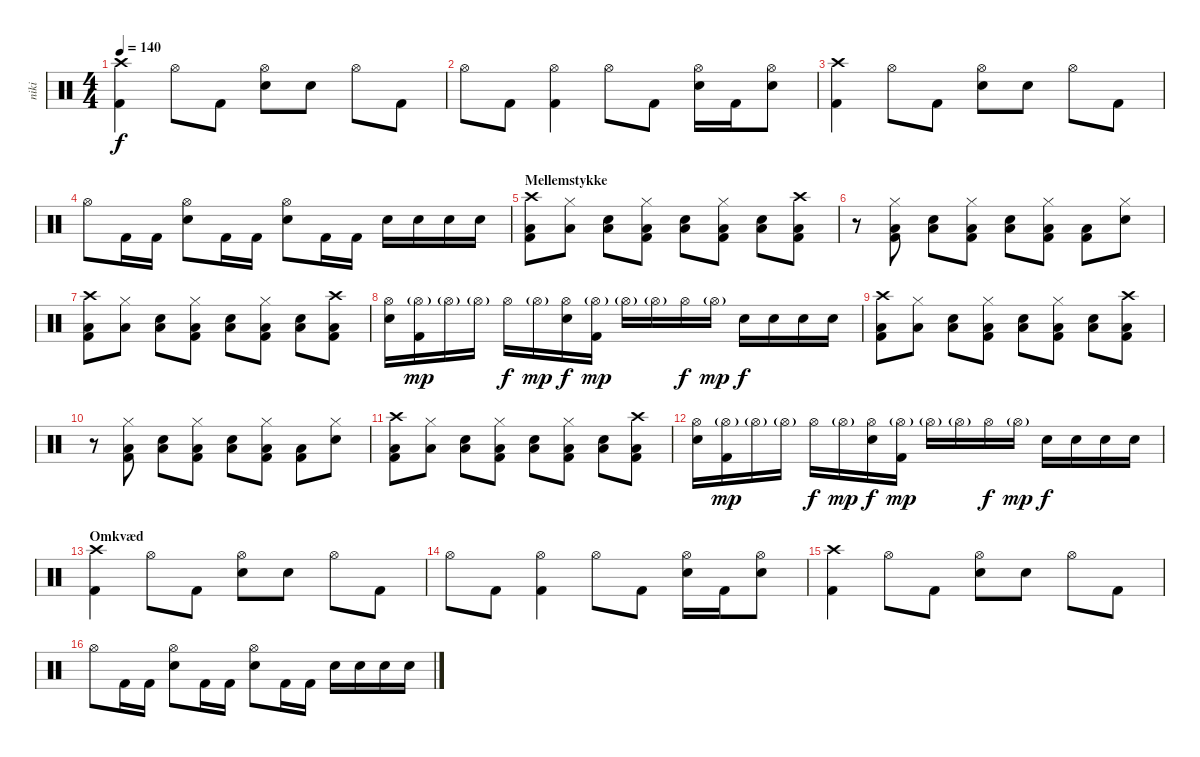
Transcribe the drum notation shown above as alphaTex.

\track ("niki" "niki") {instrument percussion}
\staff {score}
\articulation defaults
\ts (4 4)
\tempo 140
\clef neutral
\ks c
("Crash high (hit)" "Kick (hit) 2").4{dy f} "Hi-Hat (open)".8 "Kick (hit) 2".8 ("Hi-Hat (open)" "Snare (hit) 2").8 "Snare (hit) 2".8 "Hi-Hat (open)".8 "Kick (hit) 2".8 |
"Hi-Hat (open)".8 "Kick (hit) 2".8 ("Hi-Hat (open)" "Kick (hit) 2").4 "Hi-Hat (open)".8 "Kick (hit) 2".8 ("Hi-Hat (open)" "Snare (hit) 2").16 "Kick (hit) 2".16 ("Hi-Hat (open)" "Snare (hit) 2").8 |
("Crash high (hit)" "Kick (hit) 2").4 "Hi-Hat (open)".8 "Kick (hit) 2".8 ("Hi-Hat (open)" "Snare (hit) 2").8 "Snare (hit) 2".8 "Hi-Hat (open)".8 "Kick (hit) 2".8 |
"Hi-Hat (open)".8 "Kick (hit) 2".16 "Kick (hit) 2".16 ("Hi-Hat (open)" "Snare (hit) 2").8 "Kick (hit) 2".16 "Kick (hit) 2".16 ("Hi-Hat (open)" "Snare (hit) 2").8 "Kick (hit) 2".16 "Kick (hit) 2".16 "Snare (hit) 2".16 "Snare (hit) 2".16 "Snare (hit) 2".16 "Snare (hit) 2".16 |
\section ("" "Mellemstykke")
("Crash high (hit)" "Low Floor Tom (hit)" "Kick (hit) 2").8 ("Hi-Hat (closed)" "Low Floor Tom (hit)").8 ("Low Floor Tom (hit)" "Snare (hit) 2").8 ("Hi-Hat (closed)" "Low Floor Tom (hit)" "Kick (hit) 2").8 ("Low Floor Tom (hit)" "Snare (hit) 2").8 ("Hi-Hat (closed)" "Low Floor Tom (hit)" "Kick (hit) 2").8 ("Low Floor Tom (hit)" "Snare (hit) 2").8 ("Crash high (hit)" "Low Floor Tom (hit)" "Kick (hit) 2").8 |
r.8 ("Hi-Hat (closed)" "Low Floor Tom (hit)" "Kick (hit) 2").8 ("Low Floor Tom (hit)" "Snare (hit) 2").8 ("Hi-Hat (closed)" "Low Floor Tom (hit)" "Kick (hit) 2").8 ("Low Floor Tom (hit)" "Snare (hit) 2").8 ("Hi-Hat (closed)" "Low Floor Tom (hit)" "Kick (hit) 2").8 ("Low Floor Tom (hit)" "Kick (hit) 2").8 ("Hi-Hat (closed)" "Snare (hit) 2").8 |
("Crash high (hit)" "Low Floor Tom (hit)" "Kick (hit) 2").8 ("Hi-Hat (closed)" "Low Floor Tom (hit)").8 ("Low Floor Tom (hit)" "Snare (hit) 2").8 ("Hi-Hat (closed)" "Low Floor Tom (hit)" "Kick (hit) 2").8 ("Low Floor Tom (hit)" "Snare (hit) 2").8 ("Hi-Hat (closed)" "Low Floor Tom (hit)" "Kick (hit) 2").8 ("Low Floor Tom (hit)" "Snare (hit) 2").8 ("Crash high (hit)" "Low Floor Tom (hit)" "Kick (hit) 2").8 |
("Hi-Hat (open)" "Snare (hit) 2").16 ("Hi-Hat (open)"{g} "Kick (hit) 2").16{dy mp} "Hi-Hat (open)"{g}.16 "Hi-Hat (open)"{g}.16 "Hi-Hat (open)".16{dy f} "Hi-Hat (open)"{g}.16{dy mp} ("Hi-Hat (open)" "Snare (hit) 2").16{dy f} ("Hi-Hat (open)"{g} "Kick (hit) 2").16{dy mp} "Hi-Hat (open)"{g}.16 "Hi-Hat (open)"{g}.16 "Hi-Hat (open)".16{dy f} "Hi-Hat (open)"{g}.16{dy mp} "Snare (hit) 2".16{dy f} "Snare (hit) 2".16 "Snare (hit) 2".16 "Snare (hit) 2".16 |
("Crash high (hit)" "Low Floor Tom (hit)" "Kick (hit) 2").8 ("Hi-Hat (closed)" "Low Floor Tom (hit)").8 ("Low Floor Tom (hit)" "Snare (hit) 2").8 ("Hi-Hat (closed)" "Low Floor Tom (hit)" "Kick (hit) 2").8 ("Low Floor Tom (hit)" "Snare (hit) 2").8 ("Hi-Hat (closed)" "Low Floor Tom (hit)" "Kick (hit) 2").8 ("Low Floor Tom (hit)" "Snare (hit) 2").8 ("Crash high (hit)" "Low Floor Tom (hit)" "Kick (hit) 2").8 |
r.8 ("Hi-Hat (closed)" "Low Floor Tom (hit)" "Kick (hit) 2").8 ("Low Floor Tom (hit)" "Snare (hit) 2").8 ("Hi-Hat (closed)" "Low Floor Tom (hit)" "Kick (hit) 2").8 ("Low Floor Tom (hit)" "Snare (hit) 2").8 ("Hi-Hat (closed)" "Low Floor Tom (hit)" "Kick (hit) 2").8 ("Low Floor Tom (hit)" "Kick (hit) 2").8 ("Hi-Hat (closed)" "Snare (hit) 2").8 |
("Crash high (hit)" "Low Floor Tom (hit)" "Kick (hit) 2").8 ("Hi-Hat (closed)" "Low Floor Tom (hit)").8 ("Low Floor Tom (hit)" "Snare (hit) 2").8 ("Hi-Hat (closed)" "Low Floor Tom (hit)" "Kick (hit) 2").8 ("Low Floor Tom (hit)" "Snare (hit) 2").8 ("Hi-Hat (closed)" "Low Floor Tom (hit)" "Kick (hit) 2").8 ("Low Floor Tom (hit)" "Snare (hit) 2").8 ("Crash high (hit)" "Low Floor Tom (hit)" "Kick (hit) 2").8 |
("Hi-Hat (open)" "Snare (hit) 2").16 ("Hi-Hat (open)"{g} "Kick (hit) 2").16{dy mp} "Hi-Hat (open)"{g}.16 "Hi-Hat (open)"{g}.16 "Hi-Hat (open)".16{dy f} "Hi-Hat (open)"{g}.16{dy mp} ("Hi-Hat (open)" "Snare (hit) 2").16{dy f} ("Hi-Hat (open)"{g} "Kick (hit) 2").16{dy mp} "Hi-Hat (open)"{g}.16 "Hi-Hat (open)"{g}.16 "Hi-Hat (open)".16{dy f} "Hi-Hat (open)"{g}.16{dy mp} "Snare (hit) 2".16{dy f} "Snare (hit) 2".16 "Snare (hit) 2".16 "Snare (hit) 2".16 |
\section ("" "Omkvæd")
("Crash high (hit)" "Kick (hit) 2").4 "Hi-Hat (open)".8 "Kick (hit) 2".8 ("Hi-Hat (open)" "Snare (hit) 2").8 "Snare (hit) 2".8 "Hi-Hat (open)".8 "Kick (hit) 2".8 |
"Hi-Hat (open)".8 "Kick (hit) 2".8 ("Hi-Hat (open)" "Kick (hit) 2").4 "Hi-Hat (open)".8 "Kick (hit) 2".8 ("Hi-Hat (open)" "Snare (hit) 2").16 "Kick (hit) 2".16 ("Hi-Hat (open)" "Snare (hit) 2").8 |
("Crash high (hit)" "Kick (hit) 2").4 "Hi-Hat (open)".8 "Kick (hit) 2".8 ("Hi-Hat (open)" "Snare (hit) 2").8 "Snare (hit) 2".8 "Hi-Hat (open)".8 "Kick (hit) 2".8 |
"Hi-Hat (open)".8 "Kick (hit) 2".16 "Kick (hit) 2".16 ("Hi-Hat (open)" "Snare (hit) 2").8 "Kick (hit) 2".16 "Kick (hit) 2".16 ("Hi-Hat (open)" "Snare (hit) 2").8 "Kick (hit) 2".16 "Kick (hit) 2".16 "Snare (hit) 2".16 "Snare (hit) 2".16 "Snare (hit) 2".16 "Snare (hit) 2".16
